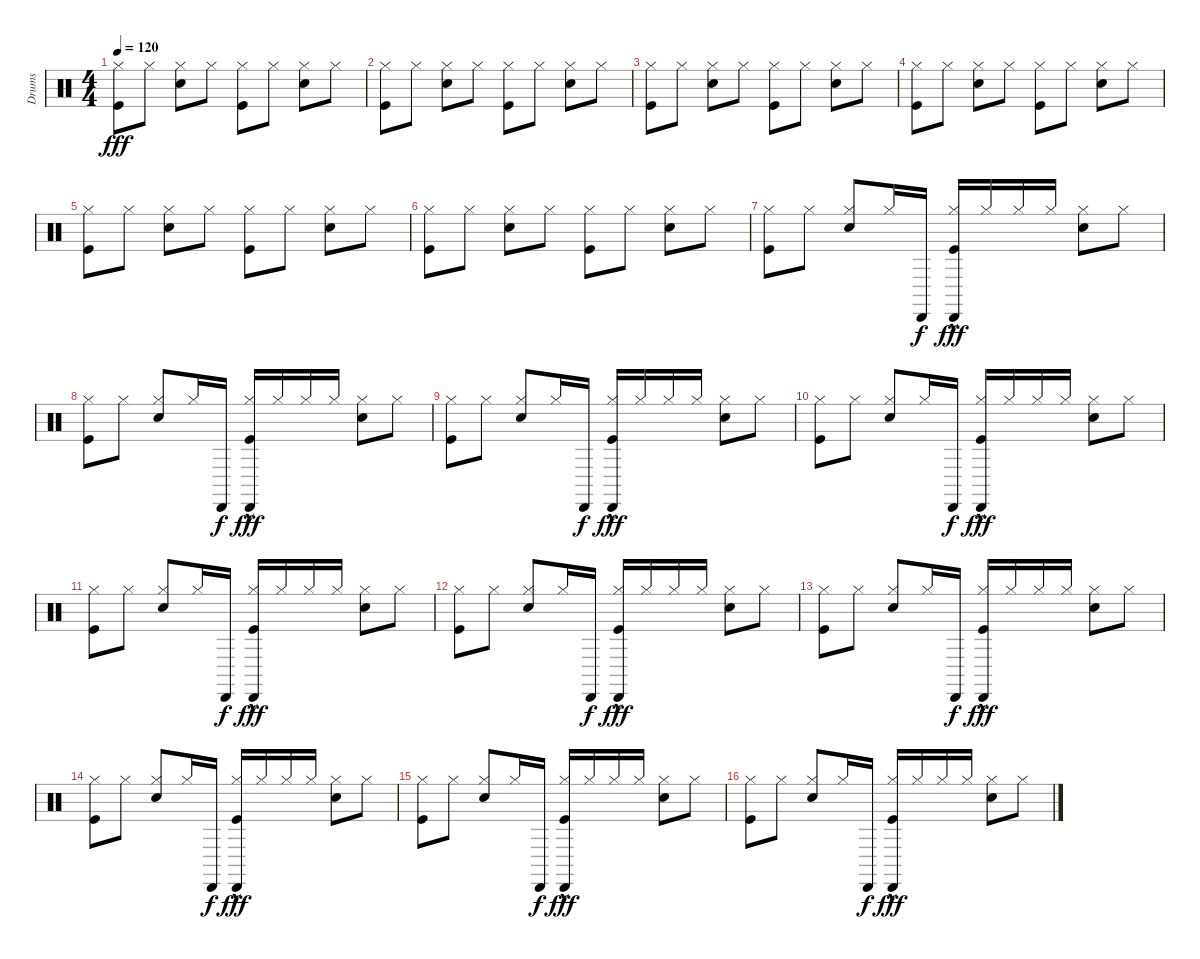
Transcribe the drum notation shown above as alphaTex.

\track ("Drums" "Drums") {instrument percussion}
\staff {score}
\articulation defaults
\ts (4 4)
\tempo 120
\clef neutral
\ks c
("Kick (hit)" "Hi-Hat (closed)").8{dy fff} "Hi-Hat (closed)".8 ("Snare (hit) 2" "Hi-Hat (closed)").8 "Hi-Hat (closed)".8 ("Kick (hit)" "Hi-Hat (closed)").8 "Hi-Hat (closed)".8 ("Snare (hit) 2" "Hi-Hat (closed)").8 "Hi-Hat (closed)".8 |
("Kick (hit)" "Hi-Hat (closed)").8 "Hi-Hat (closed)".8 ("Snare (hit) 2" "Hi-Hat (closed)").8 "Hi-Hat (closed)".8 ("Kick (hit)" "Hi-Hat (closed)").8 "Hi-Hat (closed)".8 ("Snare (hit) 2" "Hi-Hat (closed)").8 "Hi-Hat (closed)".8 |
("Kick (hit)" "Hi-Hat (closed)").8 "Hi-Hat (closed)".8 ("Snare (hit) 2" "Hi-Hat (closed)").8 "Hi-Hat (closed)".8 ("Kick (hit)" "Hi-Hat (closed)").8 "Hi-Hat (closed)".8 ("Snare (hit) 2" "Hi-Hat (closed)").8 "Hi-Hat (closed)".8 |
("Kick (hit)" "Hi-Hat (closed)").8 "Hi-Hat (closed)".8 ("Snare (hit) 2" "Hi-Hat (closed)").8 "Hi-Hat (closed)".8 ("Kick (hit)" "Hi-Hat (closed)").8 "Hi-Hat (closed)".8 ("Snare (hit) 2" "Hi-Hat (closed)").8 "Hi-Hat (closed)".8 |
("Kick (hit)" "Hi-Hat (closed)").8 "Hi-Hat (closed)".8 ("Snare (hit) 2" "Hi-Hat (closed)").8 "Hi-Hat (closed)".8 ("Kick (hit)" "Hi-Hat (closed)").8 "Hi-Hat (closed)".8 ("Snare (hit) 2" "Hi-Hat (closed)").8 "Hi-Hat (closed)".8 |
("Kick (hit)" "Hi-Hat (closed)").8 "Hi-Hat (closed)".8 ("Snare (hit) 2" "Hi-Hat (closed)").8 "Hi-Hat (closed)".8 ("Kick (hit)" "Hi-Hat (closed)").8 "Hi-Hat (closed)".8 ("Snare (hit) 2" "Hi-Hat (closed)").8 "Hi-Hat (closed)".8 |
("Kick (hit)" "Hi-Hat (closed)").8 "Hi-Hat (closed)".8 ("Snare (hit) 2" "Hi-Hat (closed)").8 "Hi-Hat (closed)".16 "Cabasa (hit)".16{dy f} ("Cabasa (hit)"{hac} "Kick (hit)" "Hi-Hat (closed)").16{dy fff} "Hi-Hat (closed)".16 "Hi-Hat (closed)".16 "Hi-Hat (closed)".16 ("Snare (hit) 2" "Hi-Hat (closed)").8 "Hi-Hat (closed)".8 |
("Kick (hit)" "Hi-Hat (closed)").8 "Hi-Hat (closed)".8 ("Snare (hit) 2" "Hi-Hat (closed)").8 "Hi-Hat (closed)".16 "Cabasa (hit)".16{dy f} ("Cabasa (hit)"{hac} "Kick (hit)" "Hi-Hat (closed)").16{dy fff} "Hi-Hat (closed)".16 "Hi-Hat (closed)".16 "Hi-Hat (closed)".16 ("Snare (hit) 2" "Hi-Hat (closed)").8 "Hi-Hat (closed)".8 |
("Kick (hit)" "Hi-Hat (closed)").8 "Hi-Hat (closed)".8 ("Snare (hit) 2" "Hi-Hat (closed)").8 "Hi-Hat (closed)".16 "Cabasa (hit)".16{dy f} ("Cabasa (hit)"{hac} "Kick (hit)" "Hi-Hat (closed)").16{dy fff} "Hi-Hat (closed)".16 "Hi-Hat (closed)".16 "Hi-Hat (closed)".16 ("Snare (hit) 2" "Hi-Hat (closed)").8 "Hi-Hat (closed)".8 |
("Kick (hit)" "Hi-Hat (closed)").8 "Hi-Hat (closed)".8 ("Snare (hit) 2" "Hi-Hat (closed)").8 "Hi-Hat (closed)".16 "Cabasa (hit)".16{dy f} ("Cabasa (hit)"{hac} "Kick (hit)" "Hi-Hat (closed)").16{dy fff} "Hi-Hat (closed)".16 "Hi-Hat (closed)".16 "Hi-Hat (closed)".16 ("Snare (hit) 2" "Hi-Hat (closed)").8 "Hi-Hat (closed)".8 |
("Kick (hit)" "Hi-Hat (closed)").8 "Hi-Hat (closed)".8 ("Snare (hit) 2" "Hi-Hat (closed)").8 "Hi-Hat (closed)".16 "Cabasa (hit)".16{dy f} ("Cabasa (hit)"{hac} "Kick (hit)" "Hi-Hat (closed)").16{dy fff} "Hi-Hat (closed)".16 "Hi-Hat (closed)".16 "Hi-Hat (closed)".16 ("Snare (hit) 2" "Hi-Hat (closed)").8 "Hi-Hat (closed)".8 |
("Kick (hit)" "Hi-Hat (closed)").8 "Hi-Hat (closed)".8 ("Snare (hit) 2" "Hi-Hat (closed)").8 "Hi-Hat (closed)".16 "Cabasa (hit)".16{dy f} ("Cabasa (hit)"{hac} "Kick (hit)" "Hi-Hat (closed)").16{dy fff} "Hi-Hat (closed)".16 "Hi-Hat (closed)".16 "Hi-Hat (closed)".16 ("Snare (hit) 2" "Hi-Hat (closed)").8 "Hi-Hat (closed)".8 |
("Kick (hit)" "Hi-Hat (closed)").8 "Hi-Hat (closed)".8 ("Snare (hit) 2" "Hi-Hat (closed)").8 "Hi-Hat (closed)".16 "Cabasa (hit)".16{dy f} ("Cabasa (hit)"{hac} "Kick (hit)" "Hi-Hat (closed)").16{dy fff} "Hi-Hat (closed)".16 "Hi-Hat (closed)".16 "Hi-Hat (closed)".16 ("Snare (hit) 2" "Hi-Hat (closed)").8 "Hi-Hat (closed)".8 |
("Kick (hit)" "Hi-Hat (closed)").8 "Hi-Hat (closed)".8 ("Snare (hit) 2" "Hi-Hat (closed)").8 "Hi-Hat (closed)".16 "Cabasa (hit)".16{dy f} ("Cabasa (hit)"{hac} "Kick (hit)" "Hi-Hat (closed)").16{dy fff} "Hi-Hat (closed)".16 "Hi-Hat (closed)".16 "Hi-Hat (closed)".16 ("Snare (hit) 2" "Hi-Hat (closed)").8 "Hi-Hat (closed)".8 |
("Kick (hit)" "Hi-Hat (closed)").8 "Hi-Hat (closed)".8 ("Snare (hit) 2" "Hi-Hat (closed)").8 "Hi-Hat (closed)".16 "Cabasa (hit)".16{dy f} ("Cabasa (hit)"{hac} "Kick (hit)" "Hi-Hat (closed)").16{dy fff} "Hi-Hat (closed)".16 "Hi-Hat (closed)".16 "Hi-Hat (closed)".16 ("Snare (hit) 2" "Hi-Hat (closed)").8 "Hi-Hat (closed)".8 |
("Kick (hit)" "Hi-Hat (closed)").8 "Hi-Hat (closed)".8 ("Snare (hit) 2" "Hi-Hat (closed)").8 "Hi-Hat (closed)".16 "Cabasa (hit)".16{dy f} ("Cabasa (hit)"{hac} "Kick (hit)" "Hi-Hat (closed)").16{dy fff} "Hi-Hat (closed)".16 "Hi-Hat (closed)".16 "Hi-Hat (closed)".16 ("Snare (hit) 2" "Hi-Hat (closed)").8 "Hi-Hat (closed)".8
